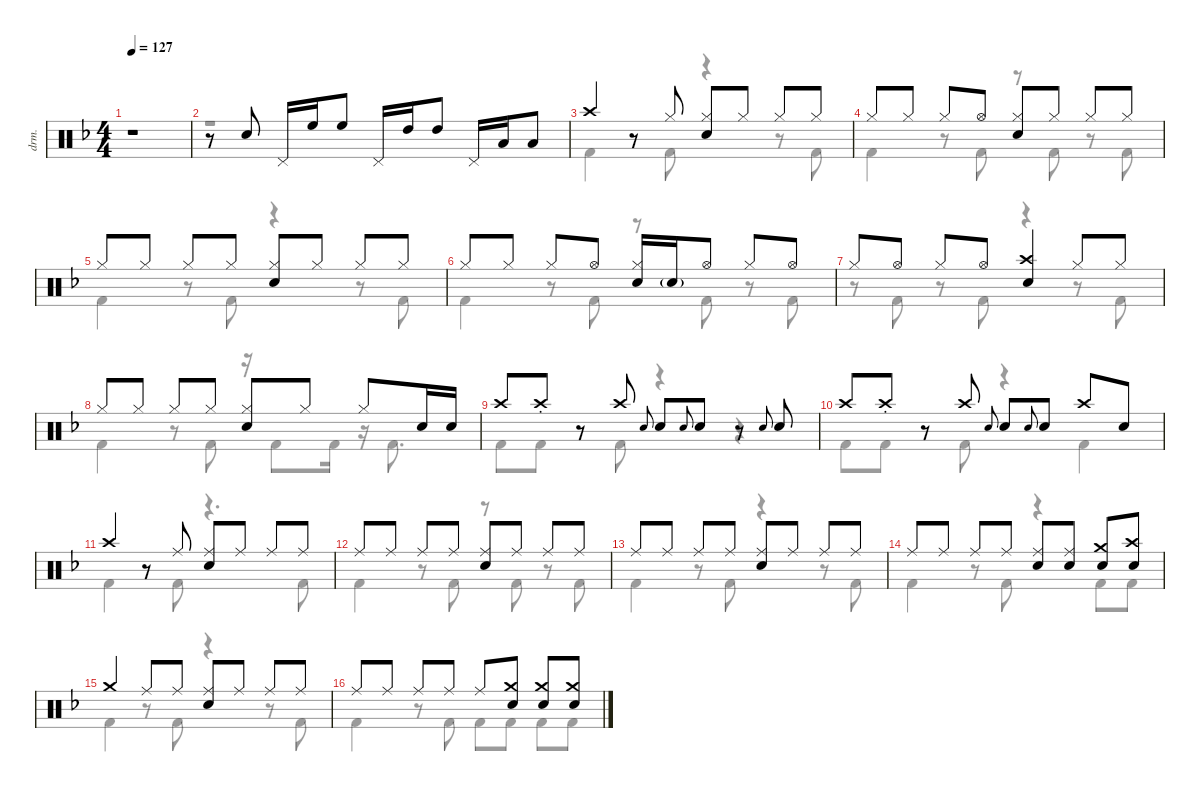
\defaultSystemsLayout 4
\hideDynamics
\bracketExtendMode nobrackets
\track ("Drums" "drm.") {instrument percussion}
\staff {score}
\articulation defaults
\voice
\ts (4 4)
\tempo 127
\clef neutral
\ks f
r.1{dy mf} |
r.8 "Snare (hit) 2"{acc forcenatural}.8 "Pedal Hi-Hat (hit)"{acc forcenatural}.16 "High Floor Tom (hit)"{acc forcenatural}.16 "High Floor Tom (hit)"{acc forcenatural}.8 "Pedal Hi-Hat (hit)"{acc forcenatural}.16 "High Tom (hit)"{acc forcenatural}.16 "High Tom (hit)"{acc forcenatural}.8 "Pedal Hi-Hat (hit)"{acc forcenatural}.16 "Low Tom (hit)"{acc forcenatural}.16 "Low Tom (hit)"{acc forcenatural}.8 |
"Crash high (hit)"{acc forcenatural}.4 r.8 "Hi-Hat (closed)"{acc forcenatural}.8 ("Hi-Hat (closed)"{acc forcenatural} "Snare (hit) 2"{acc forcenatural}).8 "Hi-Hat (closed)"{acc forcenatural}.8 "Hi-Hat (closed)"{acc forcenatural}.8 "Hi-Hat (closed)"{acc forcenatural}.8 |
"Hi-Hat (closed)"{acc forcenatural}.8 "Hi-Hat (closed)"{acc forcenatural}.8 "Hi-Hat (closed)"{acc forcenatural}.8 "Hi-Hat (open)"{acc forcenatural}.8 ("Hi-Hat (closed)"{acc forcenatural} "Snare (hit) 2"{acc forcenatural}).8 "Hi-Hat (closed)"{acc forcenatural}.8 "Hi-Hat (closed)"{acc forcenatural}.8 "Hi-Hat (closed)"{acc forcenatural}.8 |
"Hi-Hat (closed)"{acc forcenatural}.8 "Hi-Hat (closed)"{acc forcenatural}.8 "Hi-Hat (closed)"{acc forcenatural}.8 "Hi-Hat (closed)"{acc forcenatural}.8 ("Hi-Hat (closed)"{acc forcenatural} "Snare (hit) 2"{acc forcenatural}).8 "Hi-Hat (closed)"{acc forcenatural}.8 "Hi-Hat (closed)"{acc forcenatural}.8 "Hi-Hat (closed)"{acc forcenatural}.8 |
"Hi-Hat (closed)"{acc forcenatural}.8 "Hi-Hat (closed)"{acc forcenatural}.8 "Hi-Hat (closed)"{acc forcenatural}.8 "Hi-Hat (open)"{acc forcenatural}.8 ("Hi-Hat (closed)"{acc forcenatural} "Snare (hit) 2"{acc forcenatural}).16 "Snare (hit) 2"{g acc forcenatural}.16 "Hi-Hat (open)"{acc forcenatural}.8 "Hi-Hat (closed)"{acc forcenatural}.8 "Hi-Hat (open)"{acc forcenatural}.8 |
"Hi-Hat (closed)"{acc forcenatural}.8 "Hi-Hat (open)"{acc forcenatural}.8 "Hi-Hat (closed)"{acc forcenatural}.8 "Hi-Hat (open)"{acc forcenatural}.8 ("Crash high (hit)"{acc forcenatural} "Snare (hit) 2"{acc forcenatural}).4 "Hi-Hat (closed)"{acc forcenatural}.8 "Hi-Hat (closed)"{acc forcenatural}.8 |
"Hi-Hat (closed)"{acc forcenatural}.8 "Hi-Hat (closed)"{acc forcenatural}.8 "Hi-Hat (closed)"{acc forcenatural}.8 "Hi-Hat (closed)"{acc forcenatural}.8 ("Hi-Hat (closed)"{acc forcenatural} "Snare (hit) 2"{acc forcenatural}).8 "Hi-Hat (closed)"{acc forcenatural}.8 "Hi-Hat (closed)"{acc forcenatural}.8 "Snare (hit) 2"{acc forcenatural}.16 "Snare (hit) 2"{acc forcenatural}.16 |
"Crash high (hit)"{acc forcenatural}.8 "Crash high (hit)"{st acc forcenatural}.8 r.8 "Crash high (hit)"{acc forcenatural}.8 "Snare (hit) 2"{acc forcenatural}.8{gr onbeat} "Snare (hit) 2"{acc forcenatural}.8 "Snare (hit) 2"{acc forcenatural}.8{gr onbeat} "Snare (hit) 2"{acc forcenatural}.8 r.8 "Snare (hit) 2"{acc forcenatural}.8{gr onbeat} "Snare (hit) 2"{acc forcenatural}.8 |
"Crash high (hit)"{acc forcenatural}.8 "Crash high (hit)"{st acc forcenatural}.8 r.8 "Crash high (hit)"{acc forcenatural}.8 "Snare (hit) 2"{acc forcenatural}.8{gr onbeat} "Snare (hit) 2"{acc forcenatural}.8 "Snare (hit) 2"{acc forcenatural}.8{gr onbeat} "Snare (hit) 2"{acc forcenatural}.8 "Crash high (hit)"{acc forcenatural}.8 "Snare (hit) 2"{acc forcenatural}.8 |
"Crash high (hit)"{acc forcenatural}.4 r.8 "Ride (middle)"{acc forcenatural}.8 ("Ride (middle)"{acc forcenatural} "Snare (hit) 2"{acc forcenatural}).8 "Ride (middle)"{acc forcenatural}.8 "Ride (middle)"{acc forcenatural}.8 "Ride (middle)"{acc forcenatural}.8 |
"Ride (middle)"{acc forcenatural}.8 "Ride (middle)"{acc forcenatural}.8 "Ride (middle)"{acc forcenatural}.8 "Ride (middle)"{acc forcenatural}.8 ("Ride (middle)"{acc forcenatural} "Snare (hit) 2"{acc forcenatural}).8 "Ride (middle)"{acc forcenatural}.8 "Ride (middle)"{acc forcenatural}.8 "Ride (middle)"{acc forcenatural}.8 |
"Ride (middle)"{acc forcenatural}.8 "Ride (middle)"{acc forcenatural}.8 "Ride (middle)"{acc forcenatural}.8 "Ride (middle)"{acc forcenatural}.8 ("Ride (middle)"{acc forcenatural} "Snare (hit) 2"{acc forcenatural}).8 "Ride (middle)"{acc forcenatural}.8 "Ride (middle)"{acc forcenatural}.8 "Ride (middle)"{acc forcenatural}.8 |
"Ride (middle)"{acc forcenatural}.8 "Ride (middle)"{acc forcenatural}.8 "Ride (middle)"{acc forcenatural}.8 "Ride (middle)"{acc forcenatural}.8 ("Ride (middle)"{acc forcenatural} "Snare (hit) 2"{acc forcenatural}).8 ("Ride (middle)"{acc forcenatural} "Snare (hit) 2"{acc forcenatural}).8 ("Crash medium (hit)"{acc forcenatural} "Snare (hit) 2"{acc forcenatural}).8 ("Crash high (hit)"{acc forcenatural} "Snare (hit) 2"{acc forcenatural}).8 |
"Crash medium (hit)"{acc forcenatural}.4 "Ride (middle)"{acc forcenatural}.8 "Ride (middle)"{acc forcenatural}.8 ("Ride (middle)"{acc forcenatural} "Snare (hit) 2"{acc forcenatural}).8 "Ride (middle)"{acc forcenatural}.8 "Ride (middle)"{acc forcenatural}.8 "Ride (middle)"{acc forcenatural}.8 |
"Ride (middle)"{acc forcenatural}.8 "Ride (middle)"{acc forcenatural}.8 "Ride (middle)"{acc forcenatural}.8 "Ride (middle)"{acc forcenatural}.8 "Ride (middle)"{acc forcenatural}.8 ("Crash medium (hit)"{acc forcenatural} "Snare (hit) 2"{acc forcenatural}).8 ("Crash medium (hit)"{acc forcenatural} "Snare (hit) 2"{acc forcenatural}).8 ("Crash medium (hit)"{acc forcenatural} "Snare (hit) 2"{acc forcenatural}).8
\voice
\clef neutral
\ottava regular
\simile none
\ks f
|
r.1 |
"Kick (hit) 2"{acc forcenatural}.4 r.8 "Kick (hit) 2"{acc forcenatural}.8 r.4 r.8 "Kick (hit) 2"{acc forcenatural}.8 |
"Kick (hit) 2"{acc forcenatural}.4 r.8 "Kick (hit) 2"{acc forcenatural}.8 r.8 "Kick (hit) 2"{acc forcenatural}.8 r.8 "Kick (hit) 2"{acc forcenatural}.8 |
"Kick (hit) 2"{acc forcenatural}.4 r.8 "Kick (hit) 2"{acc forcenatural}.8 r.4 r.8 "Kick (hit) 2"{acc forcenatural}.8 |
"Kick (hit) 2"{acc forcenatural}.4 r.8 "Kick (hit) 2"{acc forcenatural}.8 r.8 "Kick (hit) 2"{acc forcenatural}.8 r.8 "Kick (hit) 2"{acc forcenatural}.8 |
r.8 "Kick (hit) 2"{acc forcenatural}.8 r.8 "Kick (hit) 2"{acc forcenatural}.8 r.4 r.8 "Kick (hit) 2"{acc forcenatural}.8 |
"Kick (hit) 2"{acc forcenatural}.4 r.8 "Kick (hit) 2"{acc forcenatural}.8 r.16 "Kick (hit) 2"{acc forcenatural}.8 "Kick (hit) 2"{acc forcenatural}.16 r.16 "Kick (hit) 2"{acc forcenatural}.8{d} |
"Kick (hit) 2"{acc forcenatural}.8 "Kick (hit) 2"{acc forcenatural}.8 r.8 "Kick (hit) 2"{acc forcenatural}.8 r.4 r.4 |
"Kick (hit) 2"{acc forcenatural}.8 "Kick (hit) 2"{acc forcenatural}.8 r.8 "Kick (hit) 2"{acc forcenatural}.8 r.4 "Kick (hit) 2"{acc forcenatural}.4 |
"Kick (hit) 2"{acc forcenatural}.4 r.8 "Kick (hit) 2"{acc forcenatural}.8 r.4{d} "Kick (hit) 2"{acc forcenatural}.8 |
"Kick (hit) 2"{acc forcenatural}.4 r.8 "Kick (hit) 2"{acc forcenatural}.8 r.8 "Kick (hit) 2"{acc forcenatural}.8 r.8 "Kick (hit) 2"{acc forcenatural}.8 |
"Kick (hit) 2"{acc forcenatural}.4 r.8 "Kick (hit) 2"{acc forcenatural}.8 r.4 r.8 "Kick (hit) 2"{acc forcenatural}.8 |
"Kick (hit) 2"{acc forcenatural}.4 r.8 "Kick (hit) 2"{acc forcenatural}.8 r.4 "Kick (hit) 2"{acc forcenatural}.8 "Kick (hit) 2"{acc forcenatural}.8 |
"Kick (hit) 2"{acc forcenatural}.4 r.8 "Kick (hit) 2"{acc forcenatural}.8 r.4 r.8 "Kick (hit) 2"{acc forcenatural}.8 |
"Kick (hit) 2"{acc forcenatural}.4 r.8 "Kick (hit) 2"{acc forcenatural}.8 "Kick (hit) 2"{acc forcenatural}.8 "Kick (hit) 2"{acc forcenatural}.8 "Kick (hit) 2"{acc forcenatural}.8 "Kick (hit) 2"{acc forcenatural}.8
